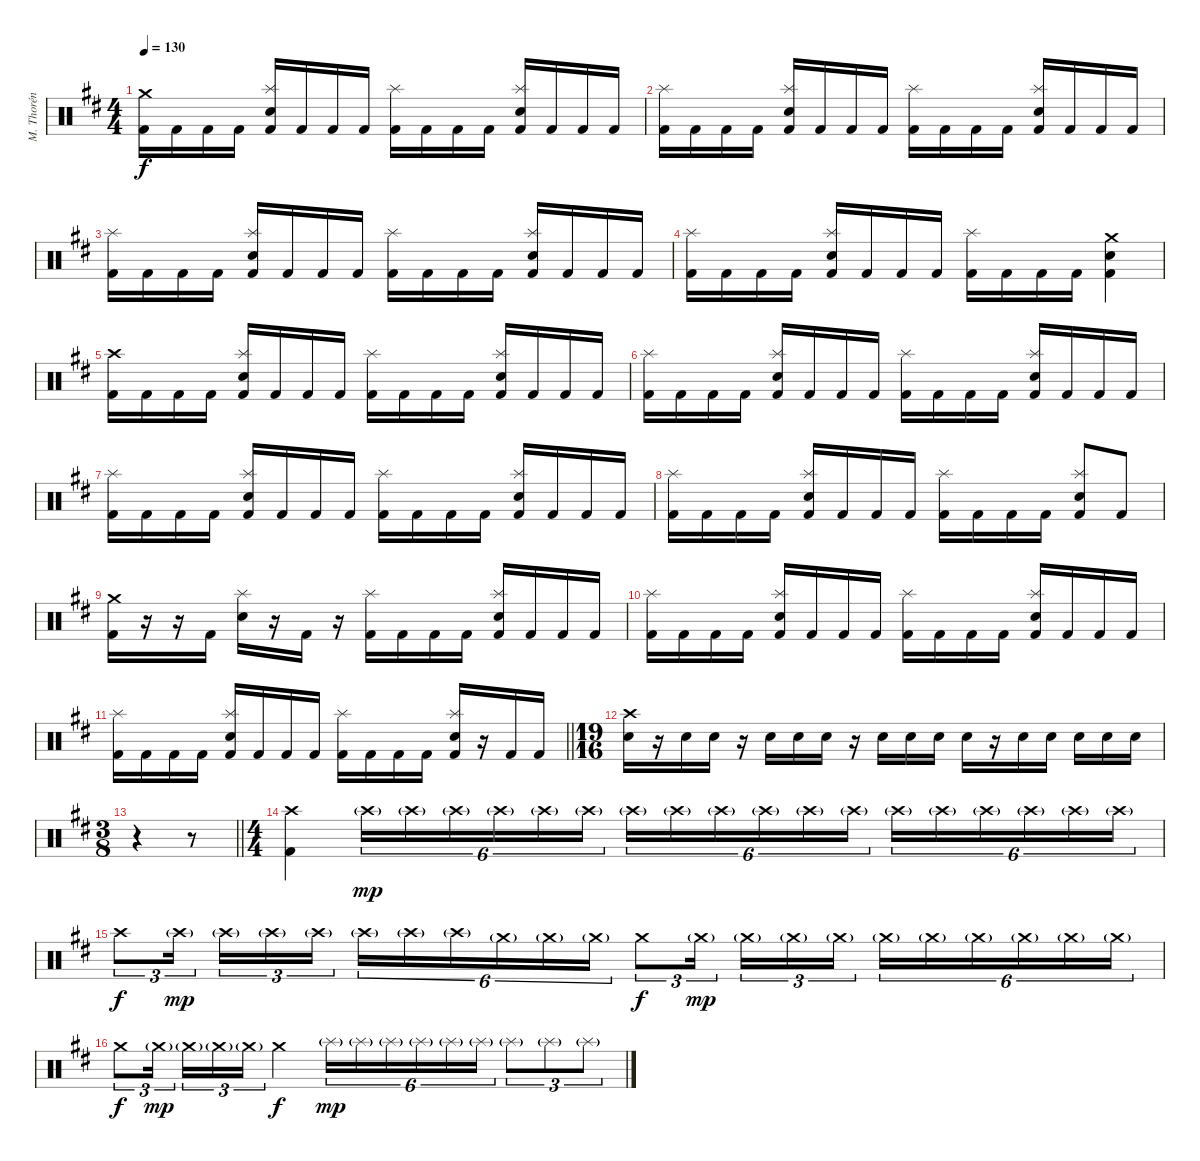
\track ("M. Thorén (Drums)" "M. Thorén ") {instrument percussion}
\staff {score}
\articulation defaults
\ts (4 4)
\tempo 130
\clef neutral
\ks bminor
("Crash medium (hit)" "Kick (hit) 2").16{dy f} "Kick (hit) 2".16 "Kick (hit) 2".16 "Kick (hit) 2".16 ("Splash (hit)" "Electric Snare (hit)" "Kick (hit) 2").16 "Kick (hit) 2".16 "Kick (hit) 2".16 "Kick (hit) 2".16 ("Splash (hit)" "Kick (hit) 2").16 "Kick (hit) 2".16 "Kick (hit) 2".16 "Kick (hit) 2".16 ("Splash (hit)" "Electric Snare (hit)" "Kick (hit) 2").16 "Kick (hit) 2".16 "Kick (hit) 2".16 "Kick (hit) 2".16 |
("Splash (hit)" "Kick (hit) 2").16 "Kick (hit) 2".16 "Kick (hit) 2".16 "Kick (hit) 2".16 ("Splash (hit)" "Electric Snare (hit)" "Kick (hit) 2").16 "Kick (hit) 2".16 "Kick (hit) 2".16 "Kick (hit) 2".16 ("Splash (hit)" "Kick (hit) 2").16 "Kick (hit) 2".16 "Kick (hit) 2".16 "Kick (hit) 2".16 ("Splash (hit)" "Electric Snare (hit)" "Kick (hit) 2").16 "Kick (hit) 2".16 "Kick (hit) 2".16 "Kick (hit) 2".16 |
("Splash (hit)" "Kick (hit) 2").16 "Kick (hit) 2".16 "Kick (hit) 2".16 "Kick (hit) 2".16 ("Splash (hit)" "Electric Snare (hit)" "Kick (hit) 2").16 "Kick (hit) 2".16 "Kick (hit) 2".16 "Kick (hit) 2".16 ("Splash (hit)" "Kick (hit) 2").16 "Kick (hit) 2".16 "Kick (hit) 2".16 "Kick (hit) 2".16 ("Splash (hit)" "Electric Snare (hit)" "Kick (hit) 2").16 "Kick (hit) 2".16 "Kick (hit) 2".16 "Kick (hit) 2".16 |
("Splash (hit)" "Kick (hit) 2").16 "Kick (hit) 2".16 "Kick (hit) 2".16 "Kick (hit) 2".16 ("Splash (hit)" "Electric Snare (hit)" "Kick (hit) 2").16 "Kick (hit) 2".16 "Kick (hit) 2".16 "Kick (hit) 2".16 ("Splash (hit)" "Kick (hit) 2").16 "Kick (hit) 2".16 "Kick (hit) 2".16 "Kick (hit) 2".16 ("Crash medium (hit)" "Electric Snare (hit)" "Kick (hit) 2").4 |
("Crash high (hit)" "Kick (hit) 2").16 "Kick (hit) 2".16 "Kick (hit) 2".16 "Kick (hit) 2".16 ("Splash (hit)" "Electric Snare (hit)" "Kick (hit) 2").16 "Kick (hit) 2".16 "Kick (hit) 2".16 "Kick (hit) 2".16 ("Splash (hit)" "Kick (hit) 2").16 "Kick (hit) 2".16 "Kick (hit) 2".16 "Kick (hit) 2".16 ("Splash (hit)" "Electric Snare (hit)" "Kick (hit) 2").16 "Kick (hit) 2".16 "Kick (hit) 2".16 "Kick (hit) 2".16 |
("Splash (hit)" "Kick (hit) 2").16 "Kick (hit) 2".16 "Kick (hit) 2".16 "Kick (hit) 2".16 ("Splash (hit)" "Electric Snare (hit)" "Kick (hit) 2").16 "Kick (hit) 2".16 "Kick (hit) 2".16 "Kick (hit) 2".16 ("Splash (hit)" "Kick (hit) 2").16 "Kick (hit) 2".16 "Kick (hit) 2".16 "Kick (hit) 2".16 ("Splash (hit)" "Electric Snare (hit)" "Kick (hit) 2").16 "Kick (hit) 2".16 "Kick (hit) 2".16 "Kick (hit) 2".16 |
("Splash (hit)" "Kick (hit) 2").16 "Kick (hit) 2".16 "Kick (hit) 2".16 "Kick (hit) 2".16 ("Splash (hit)" "Electric Snare (hit)" "Kick (hit) 2").16 "Kick (hit) 2".16 "Kick (hit) 2".16 "Kick (hit) 2".16 ("Splash (hit)" "Kick (hit) 2").16 "Kick (hit) 2".16 "Kick (hit) 2".16 "Kick (hit) 2".16 ("Splash (hit)" "Electric Snare (hit)" "Kick (hit) 2").16 "Kick (hit) 2".16 "Kick (hit) 2".16 "Kick (hit) 2".16 |
("Splash (hit)" "Kick (hit) 2").16 "Kick (hit) 2".16 "Kick (hit) 2".16 "Kick (hit) 2".16 ("Splash (hit)" "Electric Snare (hit)" "Kick (hit) 2").16 "Kick (hit) 2".16 "Kick (hit) 2".16 "Kick (hit) 2".16 ("Splash (hit)" "Kick (hit) 2").16 "Kick (hit) 2".16 "Kick (hit) 2".16 "Kick (hit) 2".16 ("Splash (hit)" "Electric Snare (hit)" "Kick (hit) 2").8 "Kick (hit) 2".8 |
("Crash medium (hit)" "Kick (hit) 2").16 r.16 r.16 "Kick (hit) 2".16 ("Splash (hit)" "Electric Snare (hit)").16 r.16 "Kick (hit) 2".16 r.16 ("Splash (hit)" "Kick (hit) 2").16 "Kick (hit) 2".16 "Kick (hit) 2".16 "Kick (hit) 2".16 ("Splash (hit)" "Electric Snare (hit)" "Kick (hit) 2").16 "Kick (hit) 2".16 "Kick (hit) 2".16 "Kick (hit) 2".16 |
("Splash (hit)" "Kick (hit) 2").16 "Kick (hit) 2".16 "Kick (hit) 2".16 "Kick (hit) 2".16 ("Splash (hit)" "Electric Snare (hit)" "Kick (hit) 2").16 "Kick (hit) 2".16 "Kick (hit) 2".16 "Kick (hit) 2".16 ("Splash (hit)" "Kick (hit) 2").16 "Kick (hit) 2".16 "Kick (hit) 2".16 "Kick (hit) 2".16 ("Splash (hit)" "Electric Snare (hit)" "Kick (hit) 2").16 "Kick (hit) 2".16 "Kick (hit) 2".16 "Kick (hit) 2".16 |
\barLineRight lightlight
("Splash (hit)" "Kick (hit) 2").16 "Kick (hit) 2".16 "Kick (hit) 2".16 "Kick (hit) 2".16 ("Splash (hit)" "Electric Snare (hit)" "Kick (hit) 2").16 "Kick (hit) 2".16 "Kick (hit) 2".16 "Kick (hit) 2".16 ("Splash (hit)" "Kick (hit) 2").16 "Kick (hit) 2".16 "Kick (hit) 2".16 "Kick (hit) 2".16 ("Splash (hit)" "Electric Snare (hit)" "Kick (hit) 2").16 r.16 "Kick (hit) 2".16 "Kick (hit) 2".16 |
\ts (19 16)
("Crash high (hit)" "Electric Snare (hit)").16 r.16 "Electric Snare (hit)".16 "Electric Snare (hit)".16 r.16 "Electric Snare (hit)".16 "Electric Snare (hit)".16 "Electric Snare (hit)".16 r.16 "Electric Snare (hit)".16 "Electric Snare (hit)".16 "Electric Snare (hit)".16 "Electric Snare (hit)".16 r.16 "Electric Snare (hit)".16 "Electric Snare (hit)".16 "Electric Snare (hit)".16 "Electric Snare (hit)".16 "Electric Snare (hit)".16 |
\ts (3 8)
\barLineRight lightlight
r.4 r.8 |
\ts (4 4)
("Crash high (hit)" "Kick (hit) 2").4 "Crash high (hit)"{g}.16{tu (6 4) dy mp} "Crash high (hit)"{g}.16{tu (6 4)} "Crash high (hit)"{g}.16{tu (6 4)} "Crash high (hit)"{g}.16{tu (6 4)} "Crash high (hit)"{g}.16{tu (6 4)} "Crash high (hit)"{g}.16{tu (6 4)} "Crash high (hit)"{g}.16{tu (6 4)} "Crash high (hit)"{g}.16{tu (6 4)} "Crash high (hit)"{g}.16{tu (6 4)} "Crash high (hit)"{g}.16{tu (6 4)} "Crash high (hit)"{g}.16{tu (6 4)} "Crash high (hit)"{g}.16{tu (6 4)} "Crash high (hit)"{g}.16{tu (6 4)} "Crash high (hit)"{g}.16{tu (6 4)} "Crash high (hit)"{g}.16{tu (6 4)} "Crash high (hit)"{g}.16{tu (6 4)} "Crash high (hit)"{g}.16{tu (6 4)} "Crash high (hit)"{g}.16{tu (6 4)} |
"Crash high (hit)".8{tu (3 2) dy f} "Crash high (hit)"{g}.16{tu (3 2) dy mp beam splitsecondary} "Crash high (hit)"{g}.16{tu (3 2)} "Crash high (hit)"{g}.16{tu (3 2)} "Crash high (hit)"{g}.16{tu (3 2)} "Crash high (hit)"{g}.16{tu (6 4)} "Crash high (hit)"{g}.16{tu (6 4)} "Crash high (hit)"{g}.16{tu (6 4)} "Crash medium (hit)"{g}.16{tu (6 4)} "Crash medium (hit)"{g}.16{tu (6 4)} "Crash medium (hit)"{g}.16{tu (6 4)} "Crash medium (hit)".8{tu (3 2) dy f} "Crash medium (hit)"{g}.16{tu (3 2) dy mp beam splitsecondary} "Crash medium (hit)"{g}.16{tu (3 2)} "Crash medium (hit)"{g}.16{tu (3 2)} "Crash medium (hit)"{g}.16{tu (3 2)} "Crash medium (hit)"{g}.16{tu (6 4)} "Crash medium (hit)"{g}.16{tu (6 4)} "Crash medium (hit)"{g}.16{tu (6 4)} "Crash medium (hit)"{g}.16{tu (6 4)} "Crash medium (hit)"{g}.16{tu (6 4)} "Crash medium (hit)"{g}.16{tu (6 4)} |
"Crash medium (hit)".8{tu (3 2) dy f} "Crash medium (hit)"{g}.16{tu (3 2) dy mp beam splitsecondary} "Crash medium (hit)"{g}.16{tu (3 2)} "Crash medium (hit)"{g}.16{tu (3 2)} "Crash medium (hit)"{g}.16{tu (3 2)} "Crash medium (hit)".4{dy f} "Splash (hit)"{g}.16{tu (6 4) dy mp} "Splash (hit)"{g}.16{tu (6 4)} "Splash (hit)"{g}.16{tu (6 4)} "Splash (hit)"{g}.16{tu (6 4)} "Splash (hit)"{g}.16{tu (6 4)} "Splash (hit)"{g}.16{tu (6 4)} "Splash (hit)"{g}.8{tu (3 2)} "Splash (hit)"{g}.8{tu (3 2)} "Splash (hit)"{g}.8{tu (3 2)}
